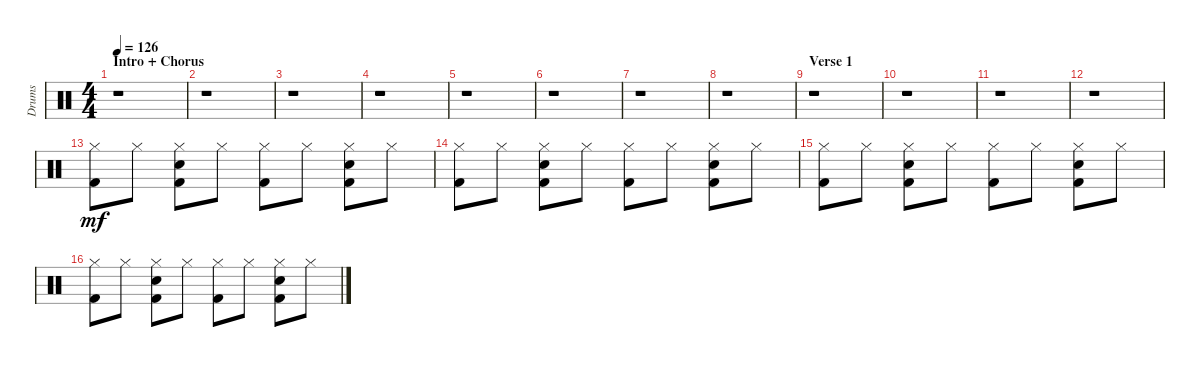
\track ("Drums" "Drums") {instrument percussion}
\staff {score}
\articulation defaults
\ts (4 4)
\section ("" "Intro + Chorus")
\tempo 126
\clef neutral
\ks c
r.1{dy mf} |
r.1 |
r.1 |
r.1 |
r.1 |
r.1 |
r.1 |
r.1 |
\section ("" "Verse 1")
r.1 |
r.1 |
r.1 |
r.1 |
("Hi-Hat (closed)" "Kick (hit) 2").8 "Hi-Hat (closed)".8 ("Hi-Hat (closed)" "Snare (hit) 2" "Kick (hit) 2").8 "Hi-Hat (closed)".8 ("Hi-Hat (closed)" "Kick (hit) 2").8 "Hi-Hat (closed)".8 ("Hi-Hat (closed)" "Snare (hit) 2" "Kick (hit) 2").8 "Hi-Hat (closed)".8 |
("Hi-Hat (closed)" "Kick (hit) 2").8 "Hi-Hat (closed)".8 ("Hi-Hat (closed)" "Snare (hit) 2" "Kick (hit) 2").8 "Hi-Hat (closed)".8 ("Hi-Hat (closed)" "Kick (hit) 2").8 "Hi-Hat (closed)".8 ("Hi-Hat (closed)" "Snare (hit) 2" "Kick (hit) 2").8 "Hi-Hat (closed)".8 |
("Hi-Hat (closed)" "Kick (hit) 2").8 "Hi-Hat (closed)".8 ("Hi-Hat (closed)" "Snare (hit) 2" "Kick (hit) 2").8 "Hi-Hat (closed)".8 ("Hi-Hat (closed)" "Kick (hit) 2").8 "Hi-Hat (closed)".8 ("Hi-Hat (closed)" "Snare (hit) 2" "Kick (hit) 2").8 "Hi-Hat (closed)".8 |
("Hi-Hat (closed)" "Kick (hit) 2").8 "Hi-Hat (closed)".8 ("Hi-Hat (closed)" "Snare (hit) 2" "Kick (hit) 2").8 "Hi-Hat (closed)".8 ("Hi-Hat (closed)" "Kick (hit) 2").8 "Hi-Hat (closed)".8 ("Hi-Hat (closed)" "Snare (hit) 2" "Kick (hit) 2").8 "Hi-Hat (closed)".8
